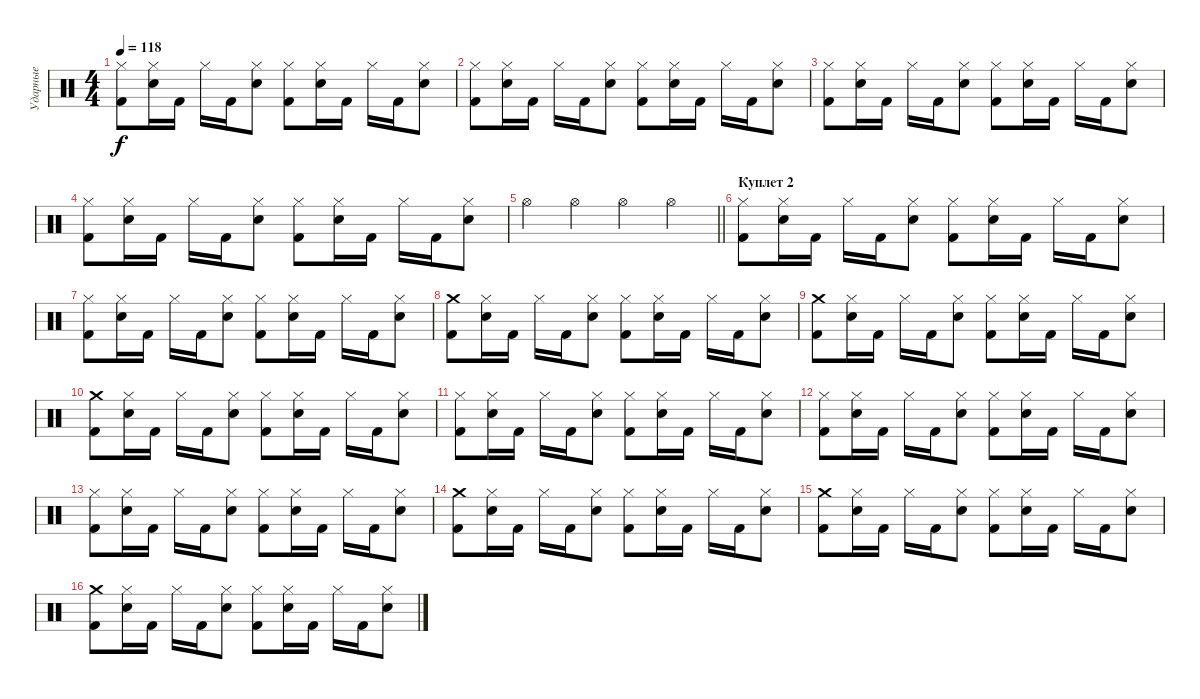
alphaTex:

\track ("Ударные" "Ударные") {instrument percussion}
\staff {score}
\articulation defaults
\ts (4 4)
\tempo 118
\clef neutral
\ks c
("Hi-Hat (closed)" "Kick (hit) 2").8{dy f} ("Hi-Hat (closed)" "Snare (hit) 2").16 "Kick (hit) 2".16 "Hi-Hat (closed)".16 "Kick (hit) 2".16 ("Hi-Hat (closed)" "Snare (hit) 2").8 ("Hi-Hat (closed)" "Kick (hit) 2").8 ("Hi-Hat (closed)" "Snare (hit) 2").16 "Kick (hit) 2".16 "Hi-Hat (closed)".16 "Kick (hit) 2".16 ("Hi-Hat (closed)" "Snare (hit) 2").8 |
("Hi-Hat (closed)" "Kick (hit) 2").8 ("Hi-Hat (closed)" "Snare (hit) 2").16 "Kick (hit) 2".16 "Hi-Hat (closed)".16 "Kick (hit) 2".16 ("Hi-Hat (closed)" "Snare (hit) 2").8 ("Hi-Hat (closed)" "Kick (hit) 2").8 ("Hi-Hat (closed)" "Snare (hit) 2").16 "Kick (hit) 2".16 "Hi-Hat (closed)".16 "Kick (hit) 2".16 ("Hi-Hat (closed)" "Snare (hit) 2").8 |
("Hi-Hat (closed)" "Kick (hit) 2").8 ("Hi-Hat (closed)" "Snare (hit) 2").16 "Kick (hit) 2".16 "Hi-Hat (closed)".16 "Kick (hit) 2".16 ("Hi-Hat (closed)" "Snare (hit) 2").8 ("Hi-Hat (closed)" "Kick (hit) 2").8 ("Hi-Hat (closed)" "Snare (hit) 2").16 "Kick (hit) 2".16 "Hi-Hat (closed)".16 "Kick (hit) 2".16 ("Hi-Hat (closed)" "Snare (hit) 2").8 |
("Hi-Hat (closed)" "Kick (hit) 2").8 ("Hi-Hat (closed)" "Snare (hit) 2").16 "Kick (hit) 2".16 "Hi-Hat (closed)".16 "Kick (hit) 2".16 ("Hi-Hat (closed)" "Snare (hit) 2").8 ("Hi-Hat (closed)" "Kick (hit) 2").8 ("Hi-Hat (closed)" "Snare (hit) 2").16 "Kick (hit) 2".16 "Hi-Hat (closed)".16 "Kick (hit) 2".16 ("Hi-Hat (closed)" "Snare (hit) 2").8 |
\barLineRight lightlight "Hi-Hat (open)".4 "Hi-Hat (open)".4 "Hi-Hat (open)".4 "Hi-Hat (open)".4
|
\section ("" "Куплет 2")
("Hi-Hat (closed)" "Kick (hit) 2").8 ("Hi-Hat (closed)" "Snare (hit) 2").16 "Kick (hit) 2".16 "Hi-Hat (closed)".16 "Kick (hit) 2".16 ("Hi-Hat (closed)" "Snare (hit) 2").8 ("Hi-Hat (closed)" "Kick (hit) 2").8 ("Hi-Hat (closed)" "Snare (hit) 2").16 "Kick (hit) 2".16 "Hi-Hat (closed)".16 "Kick (hit) 2".16 ("Hi-Hat (closed)" "Snare (hit) 2").8 |
("Hi-Hat (closed)" "Kick (hit) 2").8 ("Hi-Hat (closed)" "Snare (hit) 2").16 "Kick (hit) 2".16 "Hi-Hat (closed)".16 "Kick (hit) 2".16 ("Hi-Hat (closed)" "Snare (hit) 2").8 ("Hi-Hat (closed)" "Kick (hit) 2").8 ("Hi-Hat (closed)" "Snare (hit) 2").16 "Kick (hit) 2".16 "Hi-Hat (closed)".16 "Kick (hit) 2".16 ("Hi-Hat (closed)" "Snare (hit) 2").8 |
("Crash medium (hit)" "Kick (hit) 2").8 ("Hi-Hat (closed)" "Snare (hit) 2").16 "Kick (hit) 2".16 "Hi-Hat (closed)".16 "Kick (hit) 2".16 ("Hi-Hat (closed)" "Snare (hit) 2").8 ("Hi-Hat (closed)" "Kick (hit) 2").8 ("Hi-Hat (closed)" "Snare (hit) 2").16 "Kick (hit) 2".16 "Hi-Hat (closed)".16 "Kick (hit) 2".16 ("Hi-Hat (closed)" "Snare (hit) 2").8 |
("Crash medium (hit)" "Kick (hit) 2").8 ("Hi-Hat (closed)" "Snare (hit) 2").16 "Kick (hit) 2".16 "Hi-Hat (closed)".16 "Kick (hit) 2".16 ("Hi-Hat (closed)" "Snare (hit) 2").8 ("Hi-Hat (closed)" "Kick (hit) 2").8 ("Hi-Hat (closed)" "Snare (hit) 2").16 "Kick (hit) 2".16 "Hi-Hat (closed)".16 "Kick (hit) 2".16 ("Hi-Hat (closed)" "Snare (hit) 2").8 |
("Crash medium (hit)" "Kick (hit) 2").8 ("Hi-Hat (closed)" "Snare (hit) 2").16 "Kick (hit) 2".16 "Hi-Hat (closed)".16 "Kick (hit) 2".16 ("Hi-Hat (closed)" "Snare (hit) 2").8 ("Hi-Hat (closed)" "Kick (hit) 2").8 ("Hi-Hat (closed)" "Snare (hit) 2").16 "Kick (hit) 2".16 "Hi-Hat (closed)".16 "Kick (hit) 2".16 ("Hi-Hat (closed)" "Snare (hit) 2").8 |
("Hi-Hat (closed)" "Kick (hit) 2").8 ("Hi-Hat (closed)" "Snare (hit) 2").16 "Kick (hit) 2".16 "Hi-Hat (closed)".16 "Kick (hit) 2".16 ("Hi-Hat (closed)" "Snare (hit) 2").8 ("Hi-Hat (closed)" "Kick (hit) 2").8 ("Hi-Hat (closed)" "Snare (hit) 2").16 "Kick (hit) 2".16 "Hi-Hat (closed)".16 "Kick (hit) 2".16 ("Hi-Hat (closed)" "Snare (hit) 2").8 |
("Hi-Hat (closed)" "Kick (hit) 2").8 ("Hi-Hat (closed)" "Snare (hit) 2").16 "Kick (hit) 2".16 "Hi-Hat (closed)".16 "Kick (hit) 2".16 ("Hi-Hat (closed)" "Snare (hit) 2").8 ("Hi-Hat (closed)" "Kick (hit) 2").8 ("Hi-Hat (closed)" "Snare (hit) 2").16 "Kick (hit) 2".16 "Hi-Hat (closed)".16 "Kick (hit) 2".16 ("Hi-Hat (closed)" "Snare (hit) 2").8 |
("Hi-Hat (closed)" "Kick (hit) 2").8 ("Hi-Hat (closed)" "Snare (hit) 2").16 "Kick (hit) 2".16 "Hi-Hat (closed)".16 "Kick (hit) 2".16 ("Hi-Hat (closed)" "Snare (hit) 2").8 ("Hi-Hat (closed)" "Kick (hit) 2").8 ("Hi-Hat (closed)" "Snare (hit) 2").16 "Kick (hit) 2".16 "Hi-Hat (closed)".16 "Kick (hit) 2".16 ("Hi-Hat (closed)" "Snare (hit) 2").8 |
("Crash medium (hit)" "Kick (hit) 2").8 ("Hi-Hat (closed)" "Snare (hit) 2").16 "Kick (hit) 2".16 "Hi-Hat (closed)".16 "Kick (hit) 2".16 ("Hi-Hat (closed)" "Snare (hit) 2").8 ("Hi-Hat (closed)" "Kick (hit) 2").8 ("Hi-Hat (closed)" "Snare (hit) 2").16 "Kick (hit) 2".16 "Hi-Hat (closed)".16 "Kick (hit) 2".16 ("Hi-Hat (closed)" "Snare (hit) 2").8 |
("Crash medium (hit)" "Kick (hit) 2").8 ("Hi-Hat (closed)" "Snare (hit) 2").16 "Kick (hit) 2".16 "Hi-Hat (closed)".16 "Kick (hit) 2".16 ("Hi-Hat (closed)" "Snare (hit) 2").8 ("Hi-Hat (closed)" "Kick (hit) 2").8 ("Hi-Hat (closed)" "Snare (hit) 2").16 "Kick (hit) 2".16 "Hi-Hat (closed)".16 "Kick (hit) 2".16 ("Hi-Hat (closed)" "Snare (hit) 2").8 |
("Crash medium (hit)" "Kick (hit) 2").8 ("Hi-Hat (closed)" "Snare (hit) 2").16 "Kick (hit) 2".16 "Hi-Hat (closed)".16 "Kick (hit) 2".16 ("Hi-Hat (closed)" "Snare (hit) 2").8 ("Hi-Hat (closed)" "Kick (hit) 2").8 ("Hi-Hat (closed)" "Snare (hit) 2").16 "Kick (hit) 2".16 "Hi-Hat (closed)".16 "Kick (hit) 2".16 ("Hi-Hat (closed)" "Snare (hit) 2").8
